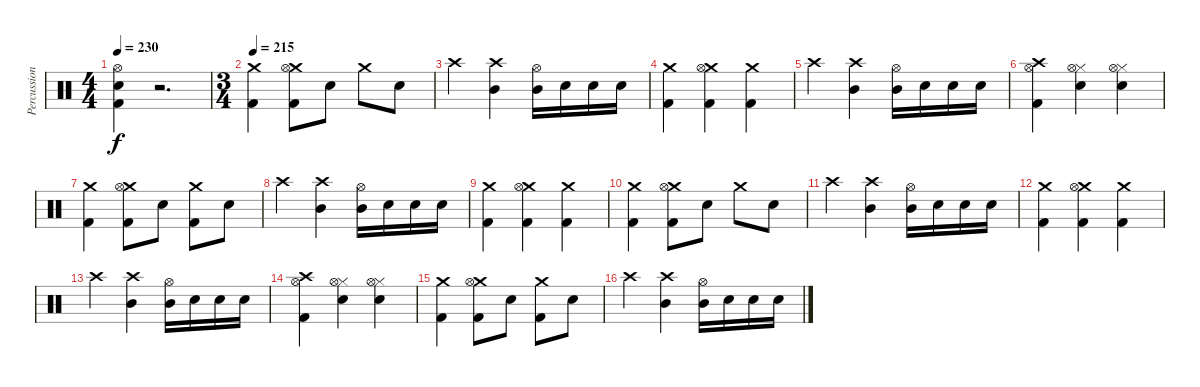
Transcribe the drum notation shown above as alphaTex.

\track ("Percussion" "Percussion") {instrument percussion}
\staff {score}
\articulation defaults
\ts (4 4)
\tempo 230
\clef neutral
\ks c
("Hi-Hat (open)" "Electric Snare (hit)" "Kick (hit) 2").4{dy f} r.2{d} |
\ts (3 4)
\tempo 215
("Crash medium (hit)" "Kick (hit) 2").4 ("Crash medium (hit)" "Hi-Hat (open)" "Kick (hit) 2").8 "Electric Snare (hit)".8 "Crash medium (hit)".8 "Electric Snare (hit)".8 |
"Crash high (hit)".4 ("Crash high (hit)" "Mid Tom (hit)").4 ("Hi-Hat (open)" "Mid Tom (hit)").16 "Electric Snare (hit)".16 "Electric Snare (hit)".16 "Electric Snare (hit)".16 |
("Crash medium (hit)" "Kick (hit) 2").4 ("Crash medium (hit)" "Hi-Hat (open)" "Kick (hit) 2").4 ("Crash medium (hit)" "Kick (hit) 2").4 |
"Crash high (hit)".4 ("Crash high (hit)" "Mid Tom (hit)").4 ("Hi-Hat (open)" "Mid Tom (hit)").16 "Electric Snare (hit)".16 "Electric Snare (hit)".16 "Electric Snare (hit)".16 |
("Hi-Hat (open)" "Crash high (hit)" "Kick (hit) 2").4 ("Electric Snare (hit)" "Hi-Hat (closed)" "Hi-Hat (open)").4 ("Electric Snare (hit)" "Hi-Hat (closed)" "Hi-Hat (open)").4 |
("Crash medium (hit)" "Kick (hit) 2").4 ("Crash medium (hit)" "Hi-Hat (open)" "Kick (hit) 2").8 "Electric Snare (hit)".8 ("Crash medium (hit)" "Kick (hit) 2").8 "Electric Snare (hit)".8 |
"Crash high (hit)".4 ("Crash high (hit)" "Mid Tom (hit)").4 ("Hi-Hat (open)" "Mid Tom (hit)").16 "Electric Snare (hit)".16 "Electric Snare (hit)".16 "Electric Snare (hit)".16 |
("Crash medium (hit)" "Kick (hit) 2").4 ("Crash medium (hit)" "Hi-Hat (open)" "Kick (hit) 2").4 ("Crash medium (hit)" "Kick (hit) 2").4 |
("Crash medium (hit)" "Kick (hit) 2").4 ("Crash medium (hit)" "Hi-Hat (open)" "Kick (hit) 2").8 "Electric Snare (hit)".8 "Crash medium (hit)".8 "Electric Snare (hit)".8 |
"Crash high (hit)".4 ("Crash high (hit)" "Mid Tom (hit)").4 ("Hi-Hat (open)" "Mid Tom (hit)").16 "Electric Snare (hit)".16 "Electric Snare (hit)".16 "Electric Snare (hit)".16 |
("Crash medium (hit)" "Kick (hit) 2").4 ("Crash medium (hit)" "Hi-Hat (open)" "Kick (hit) 2").4 ("Crash medium (hit)" "Kick (hit) 2").4 |
"Crash high (hit)".4 ("Crash high (hit)" "Mid Tom (hit)").4 ("Hi-Hat (open)" "Mid Tom (hit)").16 "Electric Snare (hit)".16 "Electric Snare (hit)".16 "Electric Snare (hit)".16 |
("Hi-Hat (open)" "Crash high (hit)" "Kick (hit) 2").4 ("Electric Snare (hit)" "Hi-Hat (closed)" "Hi-Hat (open)").4 ("Electric Snare (hit)" "Hi-Hat (closed)" "Hi-Hat (open)").4 |
("Crash medium (hit)" "Kick (hit) 2").4 ("Crash medium (hit)" "Hi-Hat (open)" "Kick (hit) 2").8 "Electric Snare (hit)".8 ("Crash medium (hit)" "Kick (hit) 2").8 "Electric Snare (hit)".8 |
"Crash high (hit)".4 ("Crash high (hit)" "Mid Tom (hit)").4 ("Hi-Hat (open)" "Mid Tom (hit)").16 "Electric Snare (hit)".16 "Electric Snare (hit)".16 "Electric Snare (hit)".16
